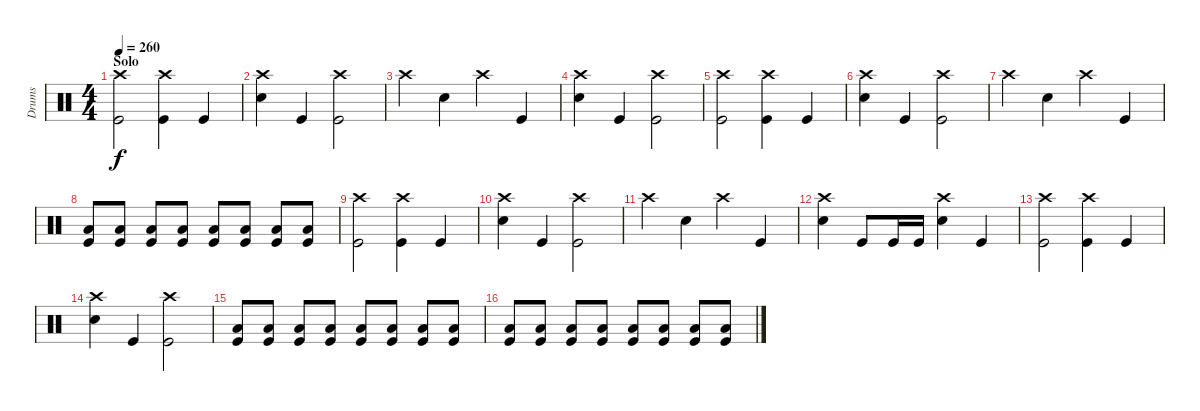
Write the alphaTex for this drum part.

\track ("Drums" "Drums") {instrument percussion}
\staff {score}
\articulation defaults
\ts (4 4)
\section ("" "Solo")
\tempo 260
\clef neutral
\ks c
("Kick (hit)" "Crash high (hit)").2{dy f} ("Kick (hit)" "Crash high (hit)").4 "Kick (hit)".4 |
("Snare (hit) 2" "Crash high (hit)").4 "Kick (hit)".4 ("Kick (hit)" "Crash high (hit)").2 |
"Crash high (hit)".4 "Snare (hit) 2".4 "Crash high (hit)".4 "Kick (hit)".4 |
("Snare (hit) 2" "Crash high (hit)").4 "Kick (hit)".4 ("Kick (hit)" "Crash high (hit)").2 |
("Kick (hit)" "Crash high (hit)").2 ("Kick (hit)" "Crash high (hit)").4 "Kick (hit)".4 |
("Snare (hit) 2" "Crash high (hit)").4 "Kick (hit)".4 ("Kick (hit)" "Crash high (hit)").2 |
"Crash high (hit)".4 "Snare (hit) 2".4 "Crash high (hit)".4 "Kick (hit)".4 |
("Kick (hit)" "Low Floor Tom (hit)").8 ("Kick (hit)" "Low Floor Tom (hit)").8 ("Kick (hit)" "Low Floor Tom (hit)").8 ("Kick (hit)" "Low Floor Tom (hit)").8 ("Kick (hit)" "Low Floor Tom (hit)").8 ("Kick (hit)" "Low Floor Tom (hit)").8 ("Kick (hit)" "Low Floor Tom (hit)").8 ("Kick (hit)" "Low Floor Tom (hit)").8 |
("Kick (hit)" "Crash high (hit)").2 ("Kick (hit)" "Crash high (hit)").4 "Kick (hit)".4 |
("Snare (hit) 2" "Crash high (hit)").4 "Kick (hit)".4 ("Kick (hit)" "Crash high (hit)").2 |
"Crash high (hit)".4 "Snare (hit) 2".4 "Crash high (hit)".4 "Kick (hit)".4 |
("Snare (hit) 2" "Crash high (hit)").4 "Kick (hit)".8 "Kick (hit)".16 "Kick (hit)".16 ("Crash high (hit)" "Snare (hit) 2").4 "Kick (hit)".4 |
("Kick (hit)" "Crash high (hit)").2 ("Kick (hit)" "Crash high (hit)").4 "Kick (hit)".4 |
("Snare (hit) 2" "Crash high (hit)").4 "Kick (hit)".4 ("Kick (hit)" "Crash high (hit)").2 |
("Kick (hit)" "Low Floor Tom (hit)").8 ("Kick (hit)" "Low Floor Tom (hit)").8 ("Kick (hit)" "Low Floor Tom (hit)").8 ("Kick (hit)" "Low Floor Tom (hit)").8 ("Kick (hit)" "Low Floor Tom (hit)").8 ("Kick (hit)" "Low Floor Tom (hit)").8 ("Kick (hit)" "Low Floor Tom (hit)").8 ("Kick (hit)" "Low Floor Tom (hit)").8 |
("Kick (hit)" "Low Floor Tom (hit)").8 ("Kick (hit)" "Low Floor Tom (hit)").8 ("Kick (hit)" "Low Floor Tom (hit)").8 ("Kick (hit)" "Low Floor Tom (hit)").8 ("Kick (hit)" "Low Floor Tom (hit)").8 ("Kick (hit)" "Low Floor Tom (hit)").8 ("Kick (hit)" "Low Floor Tom (hit)").8 ("Kick (hit)" "Low Floor Tom (hit)").8
